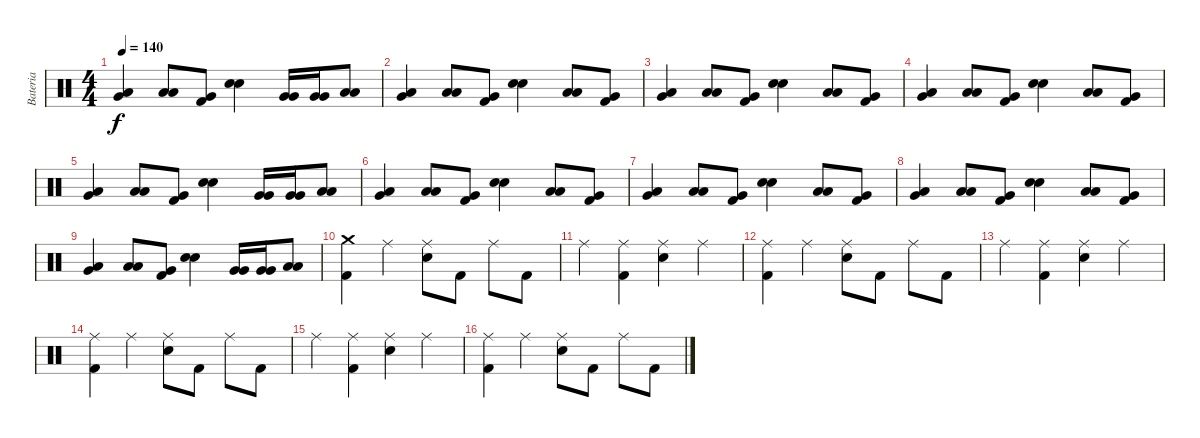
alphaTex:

\track ("Bateria" "Bateria") {instrument percussion}
\staff {score}
\articulation defaults
\ts (4 4)
\tempo 140
\clef neutral
\ks c
("Very Low Tom (hit)" "Low Floor Tom (hit)").4{dy f} ("Low Tom (hit)" "Low Tom (hit)").8 ("Kick (hit) 2" "Very Low Tom (hit)").8 ("Electric Snare (hit)" "Electric Snare (hit)").4 ("Very Low Tom (hit)" "Very Low Tom (hit)").16 ("Very Low Tom (hit)" "Very Low Tom (hit)").16 ("Low Tom (hit)" "Low Tom (hit)").8 |
("Very Low Tom (hit)" "Low Floor Tom (hit)").4 ("Low Tom (hit)" "Low Tom (hit)").8 ("Kick (hit) 2" "Very Low Tom (hit)").8 ("Electric Snare (hit)" "Electric Snare (hit)").4 ("Low Tom (hit)" "Low Tom (hit)").8 ("Kick (hit) 2" "Very Low Tom (hit)").8 |
("Very Low Tom (hit)" "Low Floor Tom (hit)").4 ("Low Tom (hit)" "Low Tom (hit)").8 ("Kick (hit) 2" "Very Low Tom (hit)").8 ("Electric Snare (hit)" "Electric Snare (hit)").4 ("Low Tom (hit)" "Low Tom (hit)").8 ("Kick (hit) 2" "Very Low Tom (hit)").8 |
("Very Low Tom (hit)" "Low Floor Tom (hit)").4 ("Low Tom (hit)" "Low Tom (hit)").8 ("Kick (hit) 2" "Very Low Tom (hit)").8 ("Electric Snare (hit)" "Electric Snare (hit)").4 ("Low Tom (hit)" "Low Tom (hit)").8 ("Kick (hit) 2" "Very Low Tom (hit)").8 |
("Very Low Tom (hit)" "Low Floor Tom (hit)").4 ("Low Tom (hit)" "Low Tom (hit)").8 ("Kick (hit) 2" "Very Low Tom (hit)").8 ("Electric Snare (hit)" "Electric Snare (hit)").4 ("Very Low Tom (hit)" "Very Low Tom (hit)").16 ("Very Low Tom (hit)" "Very Low Tom (hit)").16 ("Low Tom (hit)" "Low Tom (hit)").8 |
("Very Low Tom (hit)" "Low Floor Tom (hit)").4 ("Low Tom (hit)" "Low Tom (hit)").8 ("Kick (hit) 2" "Very Low Tom (hit)").8 ("Electric Snare (hit)" "Electric Snare (hit)").4 ("Low Tom (hit)" "Low Tom (hit)").8 ("Kick (hit) 2" "Very Low Tom (hit)").8 |
("Very Low Tom (hit)" "Low Floor Tom (hit)").4 ("Low Tom (hit)" "Low Tom (hit)").8 ("Kick (hit) 2" "Very Low Tom (hit)").8 ("Electric Snare (hit)" "Electric Snare (hit)").4 ("Low Tom (hit)" "Low Tom (hit)").8 ("Kick (hit) 2" "Very Low Tom (hit)").8 |
("Very Low Tom (hit)" "Low Floor Tom (hit)").4 ("Low Tom (hit)" "Low Tom (hit)").8 ("Kick (hit) 2" "Very Low Tom (hit)").8 ("Electric Snare (hit)" "Electric Snare (hit)").4 ("Low Tom (hit)" "Low Tom (hit)").8 ("Kick (hit) 2" "Very Low Tom (hit)").8 |
("Very Low Tom (hit)" "Low Floor Tom (hit)").4 ("Low Tom (hit)" "Low Tom (hit)").8 ("Kick (hit) 2" "Very Low Tom (hit)").8 ("Electric Snare (hit)" "Electric Snare (hit)").4 ("Very Low Tom (hit)" "Very Low Tom (hit)").16 ("Very Low Tom (hit)" "Very Low Tom (hit)").16 ("Low Tom (hit)" "Low Tom (hit)").8 |
("Crash medium (hit)" "Kick (hit) 2").4 "Ride (middle)".4 ("Ride (middle)" "Electric Snare (hit)").8 "Kick (hit) 2".8 "Ride (middle)".8 "Kick (hit) 2".8 |
"Ride (middle)".4 ("Ride (middle)" "Kick (hit) 2").4 ("Ride (middle)" "Electric Snare (hit)").4 "Ride (middle)".4 |
("Ride (middle)" "Kick (hit) 2").4 "Ride (middle)".4 ("Ride (middle)" "Electric Snare (hit)").8 "Kick (hit) 2".8 "Ride (middle)".8 "Kick (hit) 2".8 |
"Ride (middle)".4 ("Ride (middle)" "Kick (hit) 2").4 ("Ride (middle)" "Electric Snare (hit)").4 "Ride (middle)".4 |
("Ride (middle)" "Kick (hit) 2").4 "Ride (middle)".4 ("Ride (middle)" "Electric Snare (hit)").8 "Kick (hit) 2".8 "Ride (middle)".8 "Kick (hit) 2".8 |
"Ride (middle)".4 ("Ride (middle)" "Kick (hit) 2").4 ("Ride (middle)" "Electric Snare (hit)").4 "Ride (middle)".4 |
("Ride (middle)" "Kick (hit) 2").4 "Ride (middle)".4 ("Ride (middle)" "Electric Snare (hit)").8 "Kick (hit) 2".8 "Ride (middle)".8 "Kick (hit) 2".8
